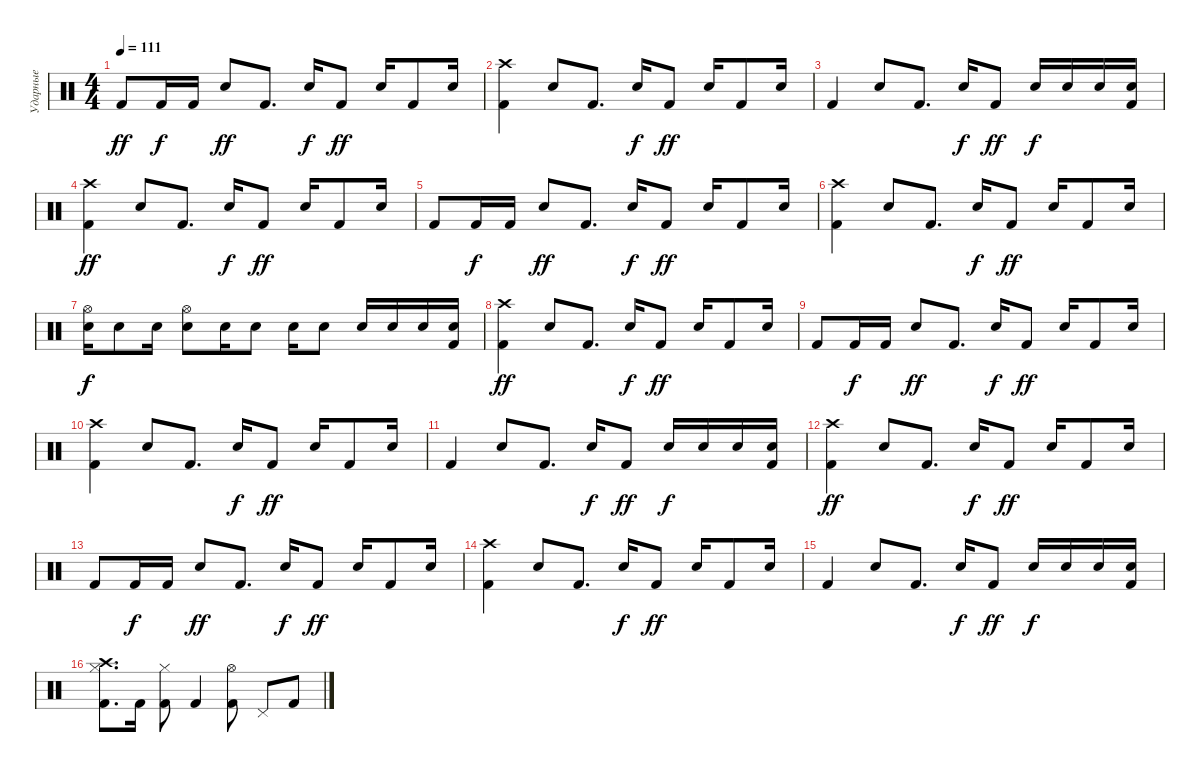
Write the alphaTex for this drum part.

\track ("Ударные" "Ударные") {instrument percussion}
\staff {score}
\articulation defaults
\ts (4 4)
\tempo 111
\clef neutral
\ks c "Kick (hit) 2".8{dy ff} "Kick (hit) 2".16{dy f} "Kick (hit) 2".16 "Snare (hit) 2".8{dy ff} "Kick (hit) 2".8{d} "Snare (hit) 2".16{dy f} "Kick (hit) 2".8{dy ff} "Snare (hit) 2".16 "Kick (hit) 2".8 "Snare (hit) 2".16
|
("Crash high (hit)" "Kick (hit) 2").4 "Snare (hit) 2".8 "Kick (hit) 2".8{d} "Snare (hit) 2".16{dy f} "Kick (hit) 2".8{dy ff} "Snare (hit) 2".16 "Kick (hit) 2".8 "Snare (hit) 2".16 |
"Kick (hit) 2".4 "Snare (hit) 2".8 "Kick (hit) 2".8{d} "Snare (hit) 2".16{dy f} "Kick (hit) 2".8{dy ff} "Electric Snare (hit)".16{dy f} "Electric Snare (hit)".16 "Snare (hit) 2".16 ("Snare (hit) 2" "Kick (hit) 2").16 |
("Crash high (hit)" "Kick (hit) 2").4{dy ff} "Snare (hit) 2".8 "Kick (hit) 2".8{d} "Snare (hit) 2".16{dy f} "Kick (hit) 2".8{dy ff} "Snare (hit) 2".16 "Kick (hit) 2".8 "Snare (hit) 2".16 |
"Kick (hit) 2".8 "Kick (hit) 2".16{dy f} "Kick (hit) 2".16 "Snare (hit) 2".8{dy ff} "Kick (hit) 2".8{d} "Snare (hit) 2".16{dy f} "Kick (hit) 2".8{dy ff} "Snare (hit) 2".16 "Kick (hit) 2".8 "Snare (hit) 2".16 |
("Crash high (hit)" "Kick (hit) 2").4 "Snare (hit) 2".8 "Kick (hit) 2".8{d} "Snare (hit) 2".16{dy f} "Kick (hit) 2".8{dy ff} "Snare (hit) 2".16 "Kick (hit) 2".8 "Snare (hit) 2".16 |
("Electric Snare (hit)" "Hi-Hat (open)").16{dy f} "Electric Snare (hit)".8 "Electric Snare (hit)".16 ("Hi-Hat (open)" "Electric Snare (hit)").8 "Electric Snare (hit)".16 "Electric Snare (hit)".8 "Electric Snare (hit)".16 "Electric Snare (hit)".8 "Electric Snare (hit)".16 "Electric Snare (hit)".16 "Snare (hit) 2".16 ("Snare (hit) 2" "Kick (hit) 2").16 |
("Crash high (hit)" "Kick (hit) 2").4{dy ff} "Snare (hit) 2".8 "Kick (hit) 2".8{d} "Snare (hit) 2".16{dy f} "Kick (hit) 2".8{dy ff} "Snare (hit) 2".16 "Kick (hit) 2".8 "Snare (hit) 2".16 |
"Kick (hit) 2".8 "Kick (hit) 2".16{dy f} "Kick (hit) 2".16 "Snare (hit) 2".8{dy ff} "Kick (hit) 2".8{d} "Snare (hit) 2".16{dy f} "Kick (hit) 2".8{dy ff} "Snare (hit) 2".16 "Kick (hit) 2".8 "Snare (hit) 2".16 |
("Crash high (hit)" "Kick (hit) 2").4 "Snare (hit) 2".8 "Kick (hit) 2".8{d} "Snare (hit) 2".16{dy f} "Kick (hit) 2".8{dy ff} "Snare (hit) 2".16 "Kick (hit) 2".8 "Snare (hit) 2".16 |
"Kick (hit) 2".4 "Snare (hit) 2".8 "Kick (hit) 2".8{d} "Snare (hit) 2".16{dy f} "Kick (hit) 2".8{dy ff} "Electric Snare (hit)".16{dy f} "Electric Snare (hit)".16 "Snare (hit) 2".16 ("Snare (hit) 2" "Kick (hit) 2").16 |
("Crash high (hit)" "Kick (hit) 2").4{dy ff} "Snare (hit) 2".8 "Kick (hit) 2".8{d} "Snare (hit) 2".16{dy f} "Kick (hit) 2".8{dy ff} "Snare (hit) 2".16 "Kick (hit) 2".8 "Snare (hit) 2".16 |
"Kick (hit) 2".8 "Kick (hit) 2".16{dy f} "Kick (hit) 2".16 "Snare (hit) 2".8{dy ff} "Kick (hit) 2".8{d} "Snare (hit) 2".16{dy f} "Kick (hit) 2".8{dy ff} "Snare (hit) 2".16 "Kick (hit) 2".8 "Snare (hit) 2".16 |
("Crash high (hit)" "Kick (hit) 2").4 "Snare (hit) 2".8 "Kick (hit) 2".8{d} "Snare (hit) 2".16{dy f} "Kick (hit) 2".8{dy ff} "Snare (hit) 2".16 "Kick (hit) 2".8 "Snare (hit) 2".16 |
"Kick (hit) 2".4 "Snare (hit) 2".8 "Kick (hit) 2".8{d} "Snare (hit) 2".16{dy f} "Kick (hit) 2".8{dy ff} "Electric Snare (hit)".16{dy f} "Electric Snare (hit)".16 "Snare (hit) 2".16 ("Snare (hit) 2" "Kick (hit) 2").16 |
("Crash high (hit)" "Kick (hit) 2" "Hi-Hat (closed)").8{d} "Kick (hit) 2".16 ("Kick (hit) 2" "Hi-Hat (closed)").8 "Kick (hit) 2".4 ("Kick (hit) 2" "Hi-Hat (open)").8 "Pedal Hi-Hat (hit)".8 "Kick (hit) 2".8
